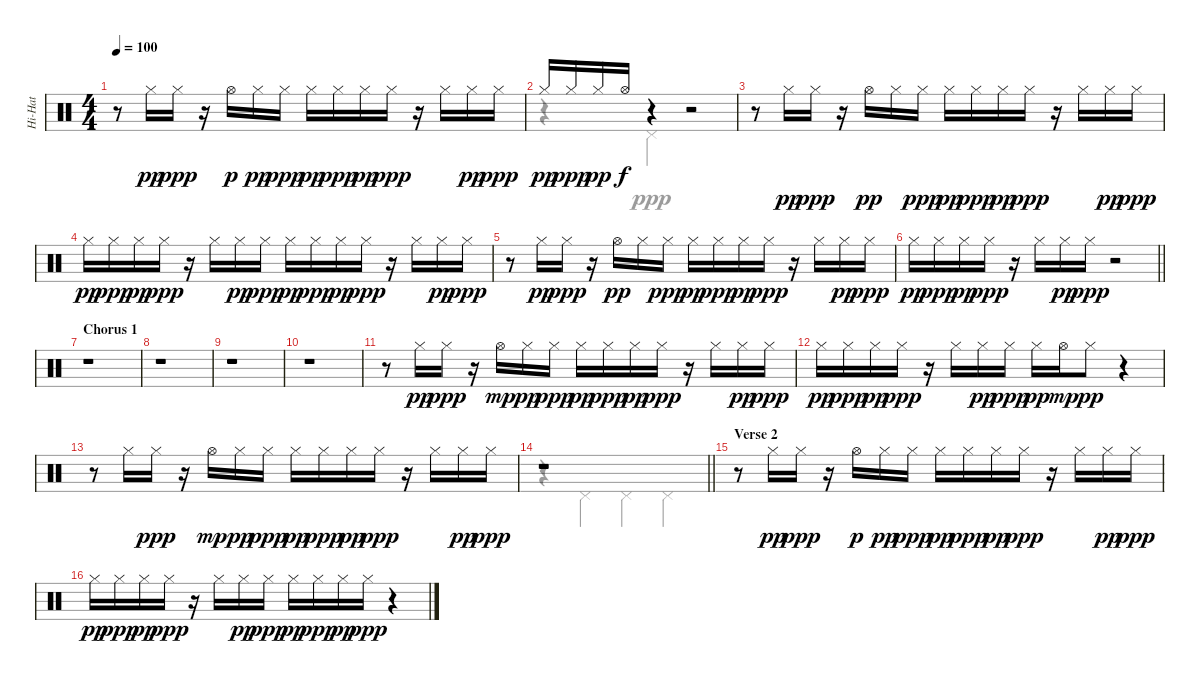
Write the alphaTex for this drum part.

\track ("Hi-Hat" "Hi-Hat") {instrument percussion}
\staff {score}
\articulation defaults
\voice
\ts (4 4)
\tempo 100
\clef neutral
\ks c
r.8{dy ppp} "Hi-Hat (closed)".16{dy pp} "Hi-Hat (closed)".16{dy ppp} r.16 "Hi-Hat (open)".16{dy p} "Hi-Hat (closed)".16{dy pp} "Hi-Hat (closed)".16{dy ppp} "Hi-Hat (closed)".16{dy pp} "Hi-Hat (closed)".16{dy ppp} "Hi-Hat (closed)".16{dy pp} "Hi-Hat (closed)".16{dy ppp} r.16 "Hi-Hat (closed)".16 "Hi-Hat (closed)".16{dy pp} "Hi-Hat (closed)".16{dy ppp} |
"Hi-Hat (closed)".16{dy pp} "Hi-Hat (closed)".16{dy ppp} "Hi-Hat (closed)".16{dy pp} "Hi-Hat (open)".16{dy f} r.4 r.2 |
r.8 "Hi-Hat (closed)".16{dy pp} "Hi-Hat (closed)".16{dy ppp} r.16 "Hi-Hat (open)".16{dy pp} "Hi-Hat (closed)".16 "Hi-Hat (closed)".16{dy ppp} "Hi-Hat (closed)".16{dy pp} "Hi-Hat (closed)".16{dy ppp} "Hi-Hat (closed)".16{dy pp} "Hi-Hat (closed)".16{dy ppp} r.16 "Hi-Hat (closed)".16 "Hi-Hat (closed)".16{dy pp} "Hi-Hat (closed)".16{dy ppp} |
"Hi-Hat (closed)".16{dy pp} "Hi-Hat (closed)".16{dy ppp} "Hi-Hat (closed)".16{dy pp} "Hi-Hat (closed)".16{dy ppp} r.16 "Hi-Hat (closed)".16 "Hi-Hat (closed)".16{dy pp} "Hi-Hat (closed)".16{dy ppp} "Hi-Hat (closed)".16{dy pp} "Hi-Hat (closed)".16{dy ppp} "Hi-Hat (closed)".16{dy pp} "Hi-Hat (closed)".16{dy ppp} r.16 "Hi-Hat (closed)".16 "Hi-Hat (closed)".16{dy pp} "Hi-Hat (closed)".16{dy ppp} |
r.8 "Hi-Hat (closed)".16{dy pp} "Hi-Hat (closed)".16{dy ppp} r.16 "Hi-Hat (open)".16{dy pp} "Hi-Hat (closed)".16 "Hi-Hat (closed)".16{dy ppp} "Hi-Hat (closed)".16{dy pp} "Hi-Hat (closed)".16{dy ppp} "Hi-Hat (closed)".16{dy pp} "Hi-Hat (closed)".16{dy ppp} r.16 "Hi-Hat (closed)".16 "Hi-Hat (closed)".16{dy pp} "Hi-Hat (closed)".16{dy ppp} |
\barLineRight lightlight "Hi-Hat (closed)".16{dy pp} "Hi-Hat (closed)".16{dy ppp} "Hi-Hat (closed)".16{dy pp} "Hi-Hat (closed)".16{dy ppp}
r.16 "Hi-Hat (closed)".16 "Hi-Hat (closed)".16{dy pp} "Hi-Hat (closed)".16{dy ppp} r.2 |
\section ("" "Chorus 1")
r.1 |
r.1 |
r.1 |
r.1 |
r.8 "Hi-Hat (closed)".16{dy pp} "Hi-Hat (closed)".16{dy ppp} r.16 "Hi-Hat (open)".16{dy mp} "Hi-Hat (closed)".16{dy pp} "Hi-Hat (closed)".16{dy ppp} "Hi-Hat (closed)".16{dy pp} "Hi-Hat (closed)".16{dy ppp} "Hi-Hat (closed)".16{dy pp} "Hi-Hat (closed)".16{dy ppp} r.16 "Hi-Hat (closed)".16 "Hi-Hat (closed)".16{dy pp} "Hi-Hat (closed)".16{dy ppp} |
"Hi-Hat (closed)".16{dy pp} "Hi-Hat (closed)".16{dy ppp} "Hi-Hat (closed)".16{dy pp} "Hi-Hat (closed)".16{dy ppp} r.16 "Hi-Hat (closed)".16 "Hi-Hat (closed)".16{dy pp} "Hi-Hat (closed)".16{dy ppp} "Hi-Hat (closed)".16{dy pp} "Hi-Hat (open)".16{dy mp} "Hi-Hat (closed)".8{dy pp} r.4 |
r.8 "Hi-Hat (closed)".16 "Hi-Hat (closed)".16{dy ppp} r.16 "Hi-Hat (open)".16{dy mp} "Hi-Hat (closed)".16{dy pp} "Hi-Hat (closed)".16{dy ppp} "Hi-Hat (closed)".16{dy pp} "Hi-Hat (closed)".16{dy ppp} "Hi-Hat (closed)".16{dy pp} "Hi-Hat (closed)".16{dy ppp} r.16 "Hi-Hat (closed)".16 "Hi-Hat (closed)".16{dy pp} "Hi-Hat (closed)".16{dy ppp} |
\barLineRight lightlight
r.1 |
\section ("" "Verse 2")
r.8 "Hi-Hat (closed)".16{dy pp} "Hi-Hat (closed)".16{dy ppp} r.16 "Hi-Hat (open)".16{dy p} "Hi-Hat (closed)".16{dy pp} "Hi-Hat (closed)".16{dy ppp} "Hi-Hat (closed)".16{dy pp} "Hi-Hat (closed)".16{dy ppp} "Hi-Hat (closed)".16{dy pp} "Hi-Hat (closed)".16{dy ppp} r.16 "Hi-Hat (closed)".16 "Hi-Hat (closed)".16{dy pp} "Hi-Hat (closed)".16{dy ppp} |
"Hi-Hat (closed)".16{dy pp} "Hi-Hat (closed)".16{dy ppp} "Hi-Hat (closed)".16{dy pp} "Hi-Hat (closed)".16{dy ppp} r.16 "Hi-Hat (closed)".16 "Hi-Hat (closed)".16{dy pp} "Hi-Hat (closed)".16{dy ppp} "Hi-Hat (closed)".16{dy pp} "Hi-Hat (closed)".16{dy ppp} "Hi-Hat (closed)".16{dy pp} "Hi-Hat (closed)".16{dy ppp} r.4
\voice
\clef neutral
\ottava regular
\simile none
\ks c
|
r.4 "Pedal Hi-Hat (hit)".4 r.2 |
|
|
|
\barLineRight lightlight
|
|
|
|
|
|
|
|
\barLineRight lightlight
r.4 "Pedal Hi-Hat (hit)".4 "Pedal Hi-Hat (hit)".4 "Pedal Hi-Hat (hit)".4 |
|
